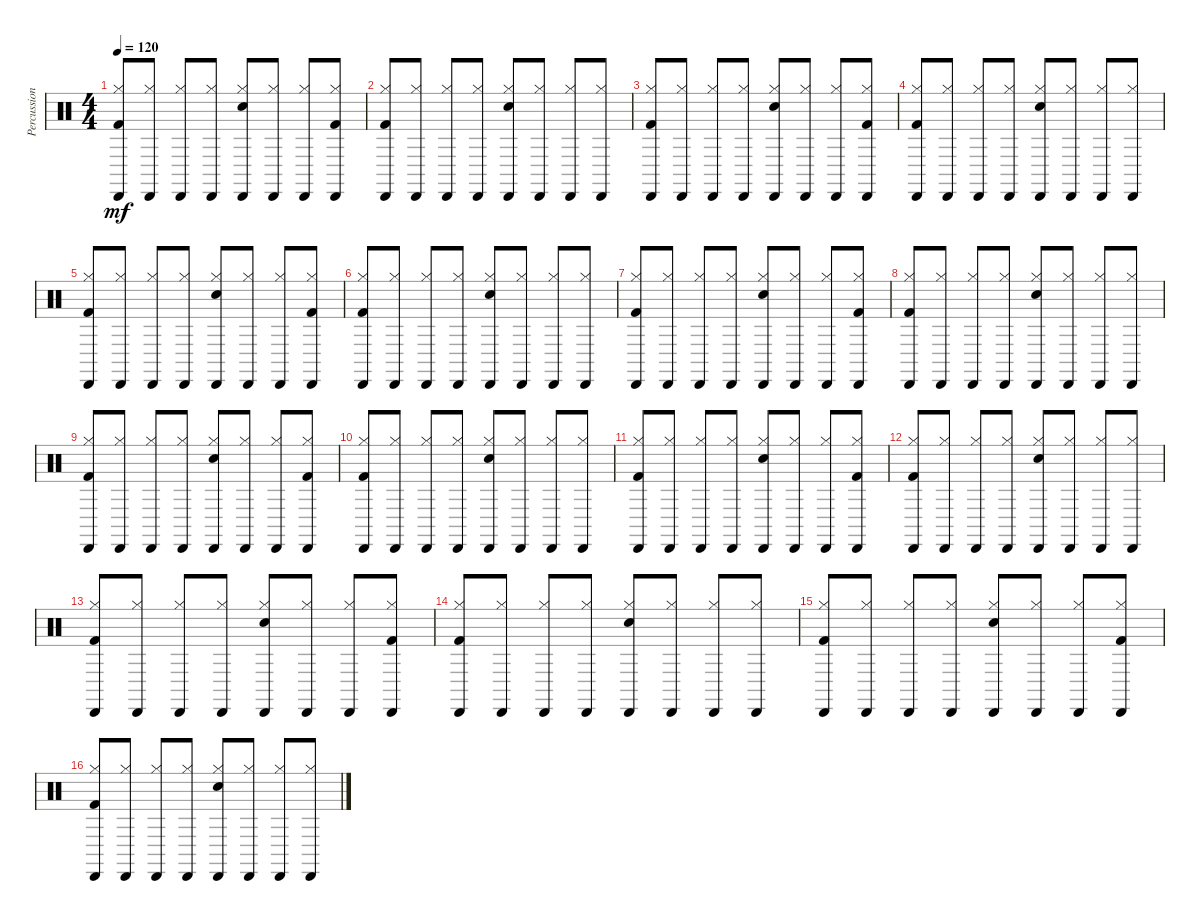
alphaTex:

\track ("Percussions" "Percussion") {instrument percussion}
\staff {score}
\articulation defaults
\ts (4 4)
\tempo 120
\clef neutral
\ks c
("Kick (hit) 2" "Cabasa (hit)" "Hi-Hat (closed)").8{dy mf} ("Cabasa (hit)" "Hi-Hat (closed)").8 ("Cabasa (hit)" "Hi-Hat (closed)").8 ("Cabasa (hit)" "Hi-Hat (closed)").8 ("Electric Snare (hit)" "Cabasa (hit)" "Hi-Hat (closed)").8 ("Cabasa (hit)" "Hi-Hat (closed)").8 ("Cabasa (hit)" "Hi-Hat (closed)").8 ("Kick (hit) 2" "Cabasa (hit)" "Hi-Hat (closed)").8 |
("Kick (hit) 2" "Cabasa (hit)" "Hi-Hat (closed)").8 ("Cabasa (hit)" "Hi-Hat (closed)").8 ("Cabasa (hit)" "Hi-Hat (closed)").8 ("Cabasa (hit)" "Hi-Hat (closed)").8 ("Electric Snare (hit)" "Cabasa (hit)" "Hi-Hat (closed)").8 ("Cabasa (hit)" "Hi-Hat (closed)").8 ("Cabasa (hit)" "Hi-Hat (closed)").8 ("Cabasa (hit)" "Hi-Hat (closed)").8 |
("Kick (hit) 2" "Cabasa (hit)" "Hi-Hat (closed)").8 ("Cabasa (hit)" "Hi-Hat (closed)").8 ("Cabasa (hit)" "Hi-Hat (closed)").8 ("Cabasa (hit)" "Hi-Hat (closed)").8 ("Electric Snare (hit)" "Cabasa (hit)" "Hi-Hat (closed)").8 ("Cabasa (hit)" "Hi-Hat (closed)").8 ("Cabasa (hit)" "Hi-Hat (closed)").8 ("Kick (hit) 2" "Cabasa (hit)" "Hi-Hat (closed)").8 |
("Kick (hit) 2" "Cabasa (hit)" "Hi-Hat (closed)").8 ("Cabasa (hit)" "Hi-Hat (closed)").8 ("Cabasa (hit)" "Hi-Hat (closed)").8 ("Cabasa (hit)" "Hi-Hat (closed)").8 ("Electric Snare (hit)" "Cabasa (hit)" "Hi-Hat (closed)").8 ("Cabasa (hit)" "Hi-Hat (closed)").8 ("Cabasa (hit)" "Hi-Hat (closed)").8 ("Cabasa (hit)" "Hi-Hat (closed)").8 |
("Kick (hit) 2" "Cabasa (hit)" "Hi-Hat (closed)").8 ("Cabasa (hit)" "Hi-Hat (closed)").8 ("Cabasa (hit)" "Hi-Hat (closed)").8 ("Cabasa (hit)" "Hi-Hat (closed)").8 ("Electric Snare (hit)" "Cabasa (hit)" "Hi-Hat (closed)").8 ("Cabasa (hit)" "Hi-Hat (closed)").8 ("Cabasa (hit)" "Hi-Hat (closed)").8 ("Kick (hit) 2" "Cabasa (hit)" "Hi-Hat (closed)").8 |
("Kick (hit) 2" "Cabasa (hit)" "Hi-Hat (closed)").8 ("Cabasa (hit)" "Hi-Hat (closed)").8 ("Cabasa (hit)" "Hi-Hat (closed)").8 ("Cabasa (hit)" "Hi-Hat (closed)").8 ("Electric Snare (hit)" "Cabasa (hit)" "Hi-Hat (closed)").8 ("Cabasa (hit)" "Hi-Hat (closed)").8 ("Cabasa (hit)" "Hi-Hat (closed)").8 ("Cabasa (hit)" "Hi-Hat (closed)").8 |
("Kick (hit) 2" "Cabasa (hit)" "Hi-Hat (closed)").8 ("Cabasa (hit)" "Hi-Hat (closed)").8 ("Cabasa (hit)" "Hi-Hat (closed)").8 ("Cabasa (hit)" "Hi-Hat (closed)").8 ("Electric Snare (hit)" "Cabasa (hit)" "Hi-Hat (closed)").8 ("Cabasa (hit)" "Hi-Hat (closed)").8 ("Cabasa (hit)" "Hi-Hat (closed)").8 ("Kick (hit) 2" "Cabasa (hit)" "Hi-Hat (closed)").8 |
("Kick (hit) 2" "Cabasa (hit)" "Hi-Hat (closed)").8 ("Cabasa (hit)" "Hi-Hat (closed)").8 ("Cabasa (hit)" "Hi-Hat (closed)").8 ("Cabasa (hit)" "Hi-Hat (closed)").8 ("Electric Snare (hit)" "Cabasa (hit)" "Hi-Hat (closed)").8 ("Cabasa (hit)" "Hi-Hat (closed)").8 ("Cabasa (hit)" "Hi-Hat (closed)").8 ("Cabasa (hit)" "Hi-Hat (closed)").8 |
("Kick (hit) 2" "Cabasa (hit)" "Hi-Hat (closed)").8 ("Cabasa (hit)" "Hi-Hat (closed)").8 ("Cabasa (hit)" "Hi-Hat (closed)").8 ("Cabasa (hit)" "Hi-Hat (closed)").8 ("Electric Snare (hit)" "Cabasa (hit)" "Hi-Hat (closed)").8 ("Cabasa (hit)" "Hi-Hat (closed)").8 ("Cabasa (hit)" "Hi-Hat (closed)").8 ("Kick (hit) 2" "Cabasa (hit)" "Hi-Hat (closed)").8 |
("Kick (hit) 2" "Cabasa (hit)" "Hi-Hat (closed)").8 ("Cabasa (hit)" "Hi-Hat (closed)").8 ("Cabasa (hit)" "Hi-Hat (closed)").8 ("Cabasa (hit)" "Hi-Hat (closed)").8 ("Electric Snare (hit)" "Cabasa (hit)" "Hi-Hat (closed)").8 ("Cabasa (hit)" "Hi-Hat (closed)").8 ("Cabasa (hit)" "Hi-Hat (closed)").8 ("Cabasa (hit)" "Hi-Hat (closed)").8 |
("Kick (hit) 2" "Cabasa (hit)" "Hi-Hat (closed)").8 ("Cabasa (hit)" "Hi-Hat (closed)").8 ("Cabasa (hit)" "Hi-Hat (closed)").8 ("Cabasa (hit)" "Hi-Hat (closed)").8 ("Electric Snare (hit)" "Cabasa (hit)" "Hi-Hat (closed)").8 ("Cabasa (hit)" "Hi-Hat (closed)").8 ("Cabasa (hit)" "Hi-Hat (closed)").8 ("Kick (hit) 2" "Cabasa (hit)" "Hi-Hat (closed)").8 |
("Kick (hit) 2" "Cabasa (hit)" "Hi-Hat (closed)").8 ("Cabasa (hit)" "Hi-Hat (closed)").8 ("Cabasa (hit)" "Hi-Hat (closed)").8 ("Cabasa (hit)" "Hi-Hat (closed)").8 ("Electric Snare (hit)" "Cabasa (hit)" "Hi-Hat (closed)").8 ("Cabasa (hit)" "Hi-Hat (closed)").8 ("Cabasa (hit)" "Hi-Hat (closed)").8 ("Cabasa (hit)" "Hi-Hat (closed)").8 |
("Kick (hit) 2" "Cabasa (hit)" "Hi-Hat (closed)").8 ("Cabasa (hit)" "Hi-Hat (closed)").8 ("Cabasa (hit)" "Hi-Hat (closed)").8 ("Cabasa (hit)" "Hi-Hat (closed)").8 ("Electric Snare (hit)" "Cabasa (hit)" "Hi-Hat (closed)").8 ("Cabasa (hit)" "Hi-Hat (closed)").8 ("Cabasa (hit)" "Hi-Hat (closed)").8 ("Kick (hit) 2" "Cabasa (hit)" "Hi-Hat (closed)").8 |
("Kick (hit) 2" "Cabasa (hit)" "Hi-Hat (closed)").8 ("Cabasa (hit)" "Hi-Hat (closed)").8 ("Cabasa (hit)" "Hi-Hat (closed)").8 ("Cabasa (hit)" "Hi-Hat (closed)").8 ("Electric Snare (hit)" "Cabasa (hit)" "Hi-Hat (closed)").8 ("Cabasa (hit)" "Hi-Hat (closed)").8 ("Cabasa (hit)" "Hi-Hat (closed)").8 ("Cabasa (hit)" "Hi-Hat (closed)").8 |
("Kick (hit) 2" "Cabasa (hit)" "Hi-Hat (closed)").8 ("Cabasa (hit)" "Hi-Hat (closed)").8 ("Cabasa (hit)" "Hi-Hat (closed)").8 ("Cabasa (hit)" "Hi-Hat (closed)").8 ("Electric Snare (hit)" "Cabasa (hit)" "Hi-Hat (closed)").8 ("Cabasa (hit)" "Hi-Hat (closed)").8 ("Cabasa (hit)" "Hi-Hat (closed)").8 ("Kick (hit) 2" "Cabasa (hit)" "Hi-Hat (closed)").8 |
("Kick (hit) 2" "Cabasa (hit)" "Hi-Hat (closed)").8 ("Cabasa (hit)" "Hi-Hat (closed)").8 ("Cabasa (hit)" "Hi-Hat (closed)").8 ("Cabasa (hit)" "Hi-Hat (closed)").8 ("Electric Snare (hit)" "Cabasa (hit)" "Hi-Hat (closed)").8 ("Cabasa (hit)" "Hi-Hat (closed)").8 ("Cabasa (hit)" "Hi-Hat (closed)").8 ("Cabasa (hit)" "Hi-Hat (closed)").8
